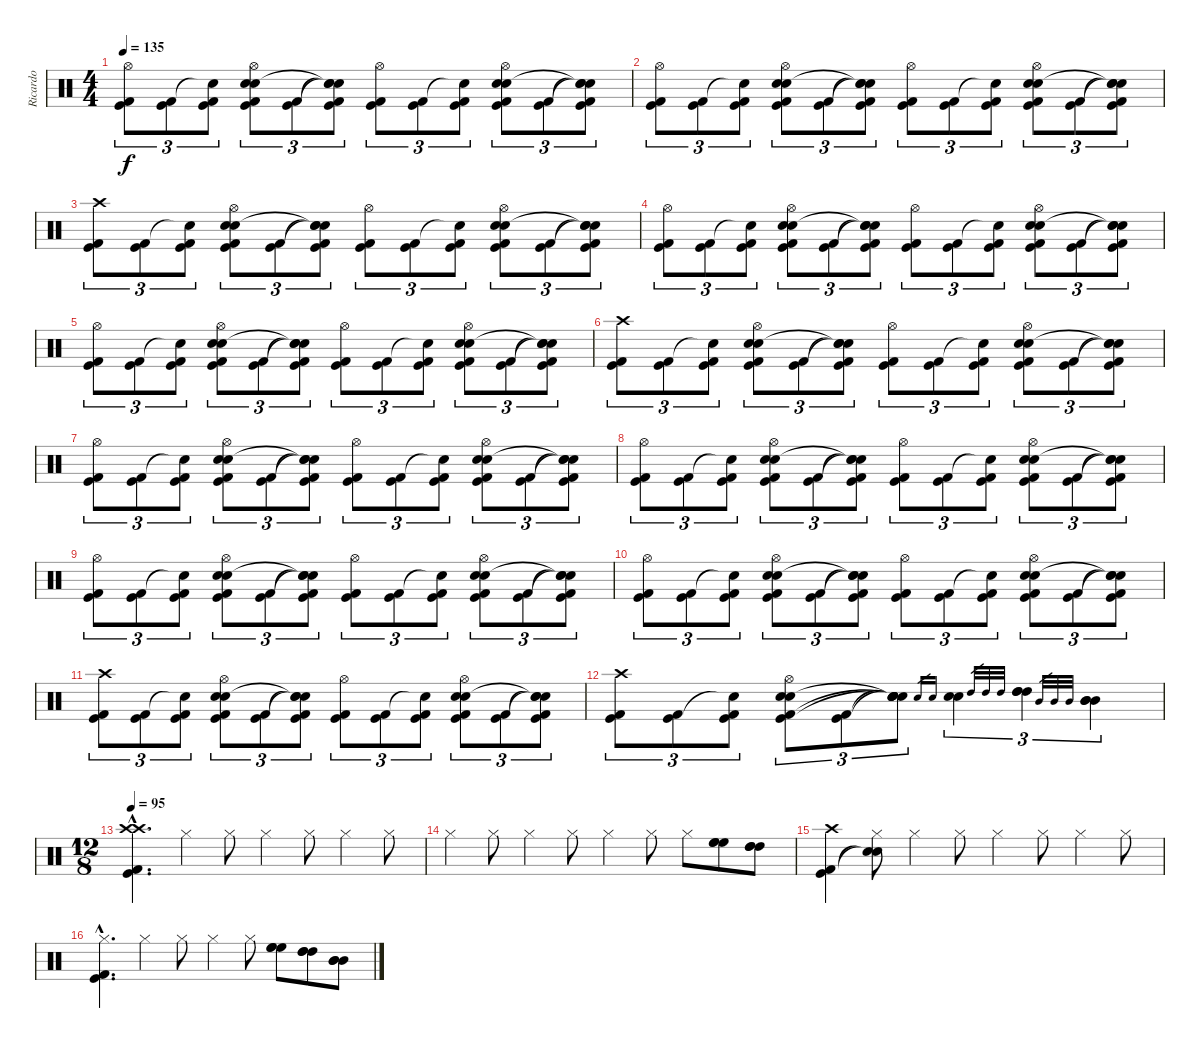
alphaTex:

\track ("Ricardo" "Ricardo") {instrument percussion}
\staff {score}
\articulation defaults
\ts (4 4)
\tempo 135
\clef neutral
\ks c
("Hi-Hat (open)" "Kick (hit) 2" "Kick (hit)").8{tu (3 2) dy f} ("Kick (hit) 2" "Kick (hit)").8{tu (3 2)} ("Snare (hit)"{t} "Kick (hit) 2" "Kick (hit)").8{tu (3 2)} ("Hi-Hat (open)" "Electric Snare (hit)" "Snare (hit) 2" "Kick (hit) 2" "Kick (hit)").8{tu (3 2)} ("Kick (hit) 2" "Kick (hit)").8{tu (3 2)} ("Snare (hit)"{t} "Snare (hit)"{t} "Snare (hit)"{t} "Kick (hit) 2" "Kick (hit)").8{tu (3 2)} ("Hi-Hat (open)" "Kick (hit) 2" "Kick (hit)").8{tu (3 2)} ("Kick (hit) 2" "Kick (hit)").8{tu (3 2)} ("Snare (hit)"{t} "Kick (hit) 2" "Kick (hit)").8{tu (3 2)} ("Hi-Hat (open)" "Electric Snare (hit)" "Snare (hit) 2" "Kick (hit) 2" "Kick (hit)").8{tu (3 2)} ("Kick (hit) 2" "Kick (hit)").8{tu (3 2)} ("Snare (hit)"{t} "Snare (hit)"{t} "Snare (hit)"{t} "Kick (hit) 2" "Kick (hit)").8{tu (3 2)} |
("Hi-Hat (open)" "Kick (hit) 2" "Kick (hit)").8{tu (3 2)} ("Kick (hit) 2" "Kick (hit)").8{tu (3 2)} ("Snare (hit)"{t} "Kick (hit) 2" "Kick (hit)").8{tu (3 2)} ("Hi-Hat (open)" "Electric Snare (hit)" "Snare (hit) 2" "Kick (hit) 2" "Kick (hit)").8{tu (3 2)} ("Kick (hit) 2" "Kick (hit)").8{tu (3 2)} ("Snare (hit)"{t} "Snare (hit)"{t} "Snare (hit)"{t} "Kick (hit) 2" "Kick (hit)").8{tu (3 2)} ("Hi-Hat (open)" "Kick (hit) 2" "Kick (hit)").8{tu (3 2)} ("Kick (hit) 2" "Kick (hit)").8{tu (3 2)} ("Snare (hit)"{t} "Kick (hit) 2" "Kick (hit)").8{tu (3 2)} ("Hi-Hat (open)" "Electric Snare (hit)" "Snare (hit) 2" "Kick (hit) 2" "Kick (hit)").8{tu (3 2)} ("Kick (hit) 2" "Kick (hit)").8{tu (3 2)} ("Snare (hit)"{t} "Snare (hit)"{t} "Snare (hit)"{t} "Kick (hit) 2" "Kick (hit)").8{tu (3 2)} |
("Crash high (hit)" "Kick (hit) 2" "Kick (hit)").8{tu (3 2)} ("Kick (hit) 2" "Kick (hit)").8{tu (3 2)} ("Snare (hit)"{t} "Kick (hit) 2" "Kick (hit)").8{tu (3 2)} ("Hi-Hat (open)" "Electric Snare (hit)" "Snare (hit) 2" "Kick (hit) 2" "Kick (hit)").8{tu (3 2)} ("Kick (hit) 2" "Kick (hit)").8{tu (3 2)} ("Snare (hit)"{t} "Snare (hit)"{t} "Snare (hit)"{t} "Kick (hit) 2" "Kick (hit)").8{tu (3 2)} ("Hi-Hat (open)" "Kick (hit) 2" "Kick (hit)").8{tu (3 2)} ("Kick (hit) 2" "Kick (hit)").8{tu (3 2)} ("Snare (hit)"{t} "Kick (hit) 2" "Kick (hit)").8{tu (3 2)} ("Hi-Hat (open)" "Electric Snare (hit)" "Snare (hit) 2" "Kick (hit) 2" "Kick (hit)").8{tu (3 2)} ("Kick (hit) 2" "Kick (hit)").8{tu (3 2)} ("Snare (hit)"{t} "Snare (hit)"{t} "Snare (hit)"{t} "Kick (hit) 2" "Kick (hit)").8{tu (3 2)} |
("Hi-Hat (open)" "Kick (hit) 2" "Kick (hit)").8{tu (3 2)} ("Kick (hit) 2" "Kick (hit)").8{tu (3 2)} ("Snare (hit)"{t} "Kick (hit) 2" "Kick (hit)").8{tu (3 2)} ("Hi-Hat (open)" "Electric Snare (hit)" "Snare (hit) 2" "Kick (hit) 2" "Kick (hit)").8{tu (3 2)} ("Kick (hit) 2" "Kick (hit)").8{tu (3 2)} ("Snare (hit)"{t} "Snare (hit)"{t} "Snare (hit)"{t} "Kick (hit) 2" "Kick (hit)").8{tu (3 2)} ("Hi-Hat (open)" "Kick (hit) 2" "Kick (hit)").8{tu (3 2)} ("Kick (hit) 2" "Kick (hit)").8{tu (3 2)} ("Snare (hit)"{t} "Kick (hit) 2" "Kick (hit)").8{tu (3 2)} ("Hi-Hat (open)" "Electric Snare (hit)" "Snare (hit) 2" "Kick (hit) 2" "Kick (hit)").8{tu (3 2)} ("Kick (hit) 2" "Kick (hit)").8{tu (3 2)} ("Snare (hit)"{t} "Snare (hit)"{t} "Snare (hit)"{t} "Kick (hit) 2" "Kick (hit)").8{tu (3 2)} |
("Hi-Hat (open)" "Kick (hit) 2" "Kick (hit)").8{tu (3 2)} ("Kick (hit) 2" "Kick (hit)").8{tu (3 2)} ("Snare (hit)"{t} "Kick (hit) 2" "Kick (hit)").8{tu (3 2)} ("Hi-Hat (open)" "Electric Snare (hit)" "Snare (hit) 2" "Kick (hit) 2" "Kick (hit)").8{tu (3 2)} ("Kick (hit) 2" "Kick (hit)").8{tu (3 2)} ("Snare (hit)"{t} "Snare (hit)"{t} "Snare (hit)"{t} "Kick (hit) 2" "Kick (hit)").8{tu (3 2)} ("Hi-Hat (open)" "Kick (hit) 2" "Kick (hit)").8{tu (3 2)} ("Kick (hit) 2" "Kick (hit)").8{tu (3 2)} ("Snare (hit)"{t} "Kick (hit) 2" "Kick (hit)").8{tu (3 2)} ("Hi-Hat (open)" "Electric Snare (hit)" "Snare (hit) 2" "Kick (hit) 2" "Kick (hit)").8{tu (3 2)} ("Kick (hit) 2" "Kick (hit)").8{tu (3 2)} ("Snare (hit)"{t} "Snare (hit)"{t} "Snare (hit)"{t} "Kick (hit) 2" "Kick (hit)").8{tu (3 2)} |
("Crash high (hit)" "Kick (hit) 2" "Kick (hit)").8{tu (3 2)} ("Kick (hit) 2" "Kick (hit)").8{tu (3 2)} ("Snare (hit)"{t} "Kick (hit) 2" "Kick (hit)").8{tu (3 2)} ("Hi-Hat (open)" "Electric Snare (hit)" "Snare (hit) 2" "Kick (hit) 2" "Kick (hit)").8{tu (3 2)} ("Kick (hit) 2" "Kick (hit)").8{tu (3 2)} ("Snare (hit)"{t} "Snare (hit)"{t} "Snare (hit)"{t} "Kick (hit) 2" "Kick (hit)").8{tu (3 2)} ("Hi-Hat (open)" "Kick (hit) 2" "Kick (hit)").8{tu (3 2)} ("Kick (hit) 2" "Kick (hit)").8{tu (3 2)} ("Snare (hit)"{t} "Kick (hit) 2" "Kick (hit)").8{tu (3 2)} ("Hi-Hat (open)" "Electric Snare (hit)" "Snare (hit) 2" "Kick (hit) 2" "Kick (hit)").8{tu (3 2)} ("Kick (hit) 2" "Kick (hit)").8{tu (3 2)} ("Snare (hit)"{t} "Snare (hit)"{t} "Snare (hit)"{t} "Kick (hit) 2" "Kick (hit)").8{tu (3 2)} |
("Hi-Hat (open)" "Kick (hit) 2" "Kick (hit)").8{tu (3 2)} ("Kick (hit) 2" "Kick (hit)").8{tu (3 2)} ("Snare (hit)"{t} "Kick (hit) 2" "Kick (hit)").8{tu (3 2)} ("Hi-Hat (open)" "Electric Snare (hit)" "Snare (hit) 2" "Kick (hit) 2" "Kick (hit)").8{tu (3 2)} ("Kick (hit) 2" "Kick (hit)").8{tu (3 2)} ("Snare (hit)"{t} "Snare (hit)"{t} "Snare (hit)"{t} "Kick (hit) 2" "Kick (hit)").8{tu (3 2)} ("Hi-Hat (open)" "Kick (hit) 2" "Kick (hit)").8{tu (3 2)} ("Kick (hit) 2" "Kick (hit)").8{tu (3 2)} ("Snare (hit)"{t} "Kick (hit) 2" "Kick (hit)").8{tu (3 2)} ("Hi-Hat (open)" "Electric Snare (hit)" "Snare (hit) 2" "Kick (hit) 2" "Kick (hit)").8{tu (3 2)} ("Kick (hit) 2" "Kick (hit)").8{tu (3 2)} ("Snare (hit)"{t} "Snare (hit)"{t} "Snare (hit)"{t} "Kick (hit) 2" "Kick (hit)").8{tu (3 2)} |
("Hi-Hat (open)" "Kick (hit) 2" "Kick (hit)").8{tu (3 2)} ("Kick (hit) 2" "Kick (hit)").8{tu (3 2)} ("Snare (hit)"{t} "Kick (hit) 2" "Kick (hit)").8{tu (3 2)} ("Hi-Hat (open)" "Electric Snare (hit)" "Snare (hit) 2" "Kick (hit) 2" "Kick (hit)").8{tu (3 2)} ("Kick (hit) 2" "Kick (hit)").8{tu (3 2)} ("Snare (hit)"{t} "Snare (hit)"{t} "Snare (hit)"{t} "Kick (hit) 2" "Kick (hit)").8{tu (3 2)} ("Hi-Hat (open)" "Kick (hit) 2" "Kick (hit)").8{tu (3 2)} ("Kick (hit) 2" "Kick (hit)").8{tu (3 2)} ("Snare (hit)"{t} "Kick (hit) 2" "Kick (hit)").8{tu (3 2)} ("Hi-Hat (open)" "Electric Snare (hit)" "Snare (hit) 2" "Kick (hit) 2" "Kick (hit)").8{tu (3 2)} ("Kick (hit) 2" "Kick (hit)").8{tu (3 2)} ("Snare (hit)"{t} "Snare (hit)"{t} "Snare (hit)"{t} "Kick (hit) 2" "Kick (hit)").8{tu (3 2)} |
("Hi-Hat (open)" "Kick (hit) 2" "Kick (hit)").8{tu (3 2)} ("Kick (hit) 2" "Kick (hit)").8{tu (3 2)} ("Snare (hit)"{t} "Kick (hit) 2" "Kick (hit)").8{tu (3 2)} ("Hi-Hat (open)" "Electric Snare (hit)" "Snare (hit) 2" "Kick (hit) 2" "Kick (hit)").8{tu (3 2)} ("Kick (hit) 2" "Kick (hit)").8{tu (3 2)} ("Snare (hit)"{t} "Snare (hit)"{t} "Snare (hit)"{t} "Kick (hit) 2" "Kick (hit)").8{tu (3 2)} ("Hi-Hat (open)" "Kick (hit) 2" "Kick (hit)").8{tu (3 2)} ("Kick (hit) 2" "Kick (hit)").8{tu (3 2)} ("Snare (hit)"{t} "Kick (hit) 2" "Kick (hit)").8{tu (3 2)} ("Hi-Hat (open)" "Electric Snare (hit)" "Snare (hit) 2" "Kick (hit) 2" "Kick (hit)").8{tu (3 2)} ("Kick (hit) 2" "Kick (hit)").8{tu (3 2)} ("Snare (hit)"{t} "Snare (hit)"{t} "Snare (hit)"{t} "Kick (hit) 2" "Kick (hit)").8{tu (3 2)} |
("Hi-Hat (open)" "Kick (hit) 2" "Kick (hit)").8{tu (3 2)} ("Kick (hit) 2" "Kick (hit)").8{tu (3 2)} ("Snare (hit)"{t} "Kick (hit) 2" "Kick (hit)").8{tu (3 2)} ("Hi-Hat (open)" "Electric Snare (hit)" "Snare (hit) 2" "Kick (hit) 2" "Kick (hit)").8{tu (3 2)} ("Kick (hit) 2" "Kick (hit)").8{tu (3 2)} ("Snare (hit)"{t} "Snare (hit)"{t} "Snare (hit)"{t} "Kick (hit) 2" "Kick (hit)").8{tu (3 2)} ("Hi-Hat (open)" "Kick (hit) 2" "Kick (hit)").8{tu (3 2)} ("Kick (hit) 2" "Kick (hit)").8{tu (3 2)} ("Snare (hit)"{t} "Kick (hit) 2" "Kick (hit)").8{tu (3 2)} ("Hi-Hat (open)" "Electric Snare (hit)" "Snare (hit) 2" "Kick (hit) 2" "Kick (hit)").8{tu (3 2)} ("Kick (hit) 2" "Kick (hit)").8{tu (3 2)} ("Snare (hit)"{t} "Snare (hit)"{t} "Snare (hit)"{t} "Kick (hit) 2" "Kick (hit)").8{tu (3 2)} |
("Crash high (hit)" "Kick (hit) 2" "Kick (hit)").8{tu (3 2)} ("Kick (hit) 2" "Kick (hit)").8{tu (3 2)} ("Snare (hit)"{t} "Kick (hit) 2" "Kick (hit)").8{tu (3 2)} ("Hi-Hat (open)" "Electric Snare (hit)" "Snare (hit) 2" "Kick (hit) 2" "Kick (hit)").8{tu (3 2)} ("Kick (hit) 2" "Kick (hit)").8{tu (3 2)} ("Snare (hit)"{t} "Snare (hit)"{t} "Snare (hit)"{t} "Kick (hit) 2" "Kick (hit)").8{tu (3 2)} ("Hi-Hat (open)" "Kick (hit) 2" "Kick (hit)").8{tu (3 2)} ("Kick (hit) 2" "Kick (hit)").8{tu (3 2)} ("Snare (hit)"{t} "Kick (hit) 2" "Kick (hit)").8{tu (3 2)} ("Hi-Hat (open)" "Electric Snare (hit)" "Snare (hit) 2" "Kick (hit) 2" "Kick (hit)").8{tu (3 2)} ("Kick (hit) 2" "Kick (hit)").8{tu (3 2)} ("Snare (hit)"{t} "Snare (hit)"{t} "Snare (hit)"{t} "Kick (hit) 2" "Kick (hit)").8{tu (3 2)} |
("Crash high (hit)" "Kick (hit)" "Kick (hit) 2").8{tu (3 2)} ("Kick (hit)" "Kick (hit) 2").8{tu (3 2)} ("Snare (hit)"{t} "Kick (hit)" "Kick (hit) 2").8{tu (3 2)} ("Hi-Hat (open)" "Snare (hit) 2" "Electric Snare (hit)" "Kick (hit)" "Kick (hit) 2").8{tu (3 2)} ("Kick (hit) 2" "Kick (hit)").8{tu (3 2)} ("Snare (hit)"{t} "Snare (hit)"{t} "Snare (hit)"{t} "Snare (hit)"{t} "Snare (hit)"{t}).8{tu (3 2)} "Electric Snare (hit)".16{gr} "Snare (hit) 2".16{gr} ("Electric Snare (hit)" "Snare (hit) 2").4{tu (3 2)} "High Tom (hit)".32{gr} "High Tom (hit)".32{gr} "High Tom (hit)".32{gr} ("High Tom (hit)" "High Tom (hit)" "High Tom (hit)").4{tu (3 2)} "Mid Tom (hit)".32{gr} "Mid Tom (hit)".32{gr} "Mid Tom (hit)".32{gr} ("Mid Tom (hit)" "Mid Tom (hit)" "Mid Tom (hit)").4{tu (3 2)} |
\ts (12 8)
\tempo 95
("Crash high (hit)"{hac} "Crash high (hit)"{hac} "Kick (hit)"{hac} "Kick (hit) 2"{hac}).4{d} "Hi-Hat (closed)".4 "Hi-Hat (closed)".8 "Hi-Hat (closed)".4 "Hi-Hat (closed)".8 "Hi-Hat (closed)".4 "Hi-Hat (closed)".8 |
"Hi-Hat (closed)".4 "Hi-Hat (closed)".8 "Hi-Hat (closed)".4 "Hi-Hat (closed)".8 "Hi-Hat (closed)".4 "Hi-Hat (closed)".8 "Hi-Hat (closed)".8 ("High Floor Tom (hit)" "High Floor Tom (hit)" "High Floor Tom (hit)").8 ("High Tom (hit)" "High Tom (hit)" "High Tom (hit)").8 |
("Crash high (hit)" "Kick (hit)" "Kick (hit) 2").4 ("Hi-Hat (closed)" "Snare (hit)"{t} "Snare (hit)"{t}).8 "Hi-Hat (closed)".4 "Hi-Hat (closed)".8 "Hi-Hat (closed)".4 "Hi-Hat (closed)".8 "Hi-Hat (closed)".4 "Hi-Hat (closed)".8 |
("Hi-Hat (closed)"{hac} "Kick (hit)"{hac} "Kick (hit) 2"{hac}).4{d} "Hi-Hat (closed)".4 "Hi-Hat (closed)".8 "Hi-Hat (closed)".4 "Hi-Hat (closed)".8 ("High Floor Tom (hit)" "High Floor Tom (hit)" "High Floor Tom (hit)").8 ("High Tom (hit)" "High Tom (hit)" "High Tom (hit)").8 ("Mid Tom (hit)" "Mid Tom (hit)" "Mid Tom (hit)").8
